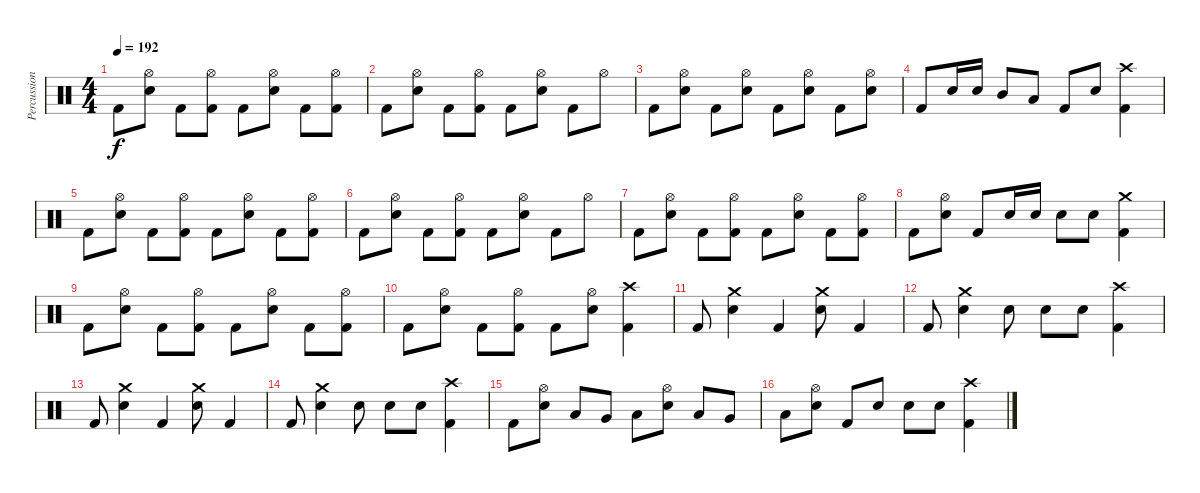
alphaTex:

\track ("Percussion" "Percussion") {instrument percussion}
\staff {score}
\articulation defaults
\ts (4 4)
\tempo 192
\clef neutral
\ks c "Kick (hit) 2".8{dy f}
("Hi-Hat (open)" "Electric Snare (hit)").8 "Kick (hit) 2".8 ("Hi-Hat (open)" "Kick (hit) 2").8 "Kick (hit) 2".8 ("Hi-Hat (open)" "Electric Snare (hit)").8 "Kick (hit) 2".8 ("Hi-Hat (open)" "Kick (hit) 2").8 |
"Kick (hit) 2".8 ("Hi-Hat (open)" "Electric Snare (hit)").8 "Kick (hit) 2".8 ("Hi-Hat (open)" "Kick (hit) 2").8 "Kick (hit) 2".8 ("Hi-Hat (open)" "Electric Snare (hit)").8 "Kick (hit) 2".8 "Hi-Hat (open)".8 |
"Kick (hit) 2".8 ("Hi-Hat (open)" "Electric Snare (hit)").8 "Kick (hit) 2".8 ("Hi-Hat (open)" "Electric Snare (hit)").8 "Kick (hit) 2".8 ("Hi-Hat (open)" "Electric Snare (hit)").8 "Kick (hit) 2".8 ("Hi-Hat (open)" "Electric Snare (hit)").8 |
"Kick (hit) 2".8 "Electric Snare (hit)".16 "Electric Snare (hit)".16 "Mid Tom (hit)".8 "Low Tom (hit)".8 "Kick (hit) 2".8 "Electric Snare (hit)".8 ("Crash high (hit)" "Kick (hit) 2").4 |
"Kick (hit) 2".8 ("Hi-Hat (open)" "Electric Snare (hit)").8 "Kick (hit) 2".8 ("Hi-Hat (open)" "Kick (hit) 2").8 "Kick (hit) 2".8 ("Hi-Hat (open)" "Electric Snare (hit)").8 "Kick (hit) 2".8 ("Hi-Hat (open)" "Kick (hit) 2").8 |
"Kick (hit) 2".8 ("Hi-Hat (open)" "Electric Snare (hit)").8 "Kick (hit) 2".8 ("Hi-Hat (open)" "Kick (hit) 2").8 "Kick (hit) 2".8 ("Hi-Hat (open)" "Electric Snare (hit)").8 "Kick (hit) 2".8 "Hi-Hat (open)".8 |
"Kick (hit) 2".8 ("Hi-Hat (open)" "Electric Snare (hit)").8 "Kick (hit) 2".8 ("Hi-Hat (open)" "Kick (hit) 2").8 "Kick (hit) 2".8 ("Hi-Hat (open)" "Electric Snare (hit)").8 "Kick (hit) 2".8 ("Hi-Hat (open)" "Kick (hit) 2").8 |
"Kick (hit) 2".8 ("Hi-Hat (open)" "Electric Snare (hit)").8 "Kick (hit) 2".8 "Electric Snare (hit)".16 "Electric Snare (hit)".16 "Electric Snare (hit)".8 "Electric Snare (hit)".8 ("Crash medium (hit)" "Kick (hit) 2").4 |
"Kick (hit) 2".8 ("Hi-Hat (open)" "Electric Snare (hit)").8 "Kick (hit) 2".8 ("Hi-Hat (open)" "Kick (hit) 2").8 "Kick (hit) 2".8 ("Hi-Hat (open)" "Electric Snare (hit)").8 "Kick (hit) 2".8 ("Hi-Hat (open)" "Kick (hit) 2").8 |
"Kick (hit) 2".8 ("Hi-Hat (open)" "Electric Snare (hit)").8 "Kick (hit) 2".8 ("Hi-Hat (open)" "Kick (hit) 2").8 "Kick (hit) 2".8 ("Hi-Hat (open)" "Electric Snare (hit)").8 ("Crash high (hit)" "Kick (hit) 2").4 |
"Kick (hit) 2".8 ("Crash medium (hit)" "Electric Snare (hit)").4 "Kick (hit) 2".4 ("Crash medium (hit)" "Electric Snare (hit)").8 "Kick (hit) 2".4 |
"Kick (hit) 2".8 ("Crash medium (hit)" "Electric Snare (hit)").4 "Electric Snare (hit)".8 "Electric Snare (hit)".8 "Electric Snare (hit)".8 ("Crash high (hit)" "Kick (hit) 2").4 |
"Kick (hit) 2".8 ("Crash medium (hit)" "Electric Snare (hit)").4 "Kick (hit) 2".4 ("Crash medium (hit)" "Electric Snare (hit)").8 "Kick (hit) 2".4 |
"Kick (hit) 2".8 ("Crash medium (hit)" "Electric Snare (hit)").4 "Electric Snare (hit)".8 "Electric Snare (hit)".8 "Electric Snare (hit)".8 ("Crash high (hit)" "Kick (hit) 2").4 |
"Kick (hit) 2".8 ("Hi-Hat (open)" "Electric Snare (hit)").8 "Low Tom (hit)".8 "Very Low Tom (hit)".8 "Low Floor Tom (hit)".8 ("Hi-Hat (open)" "Electric Snare (hit)").8 "Low Tom (hit)".8 "Very Low Tom (hit)".8 |
"Low Floor Tom (hit)".8 ("Hi-Hat (open)" "Electric Snare (hit)").8 "Kick (hit) 2".8 "Electric Snare (hit)".8 "Electric Snare (hit)".8 "Electric Snare (hit)".8 ("Crash high (hit)" "Kick (hit) 2").4
